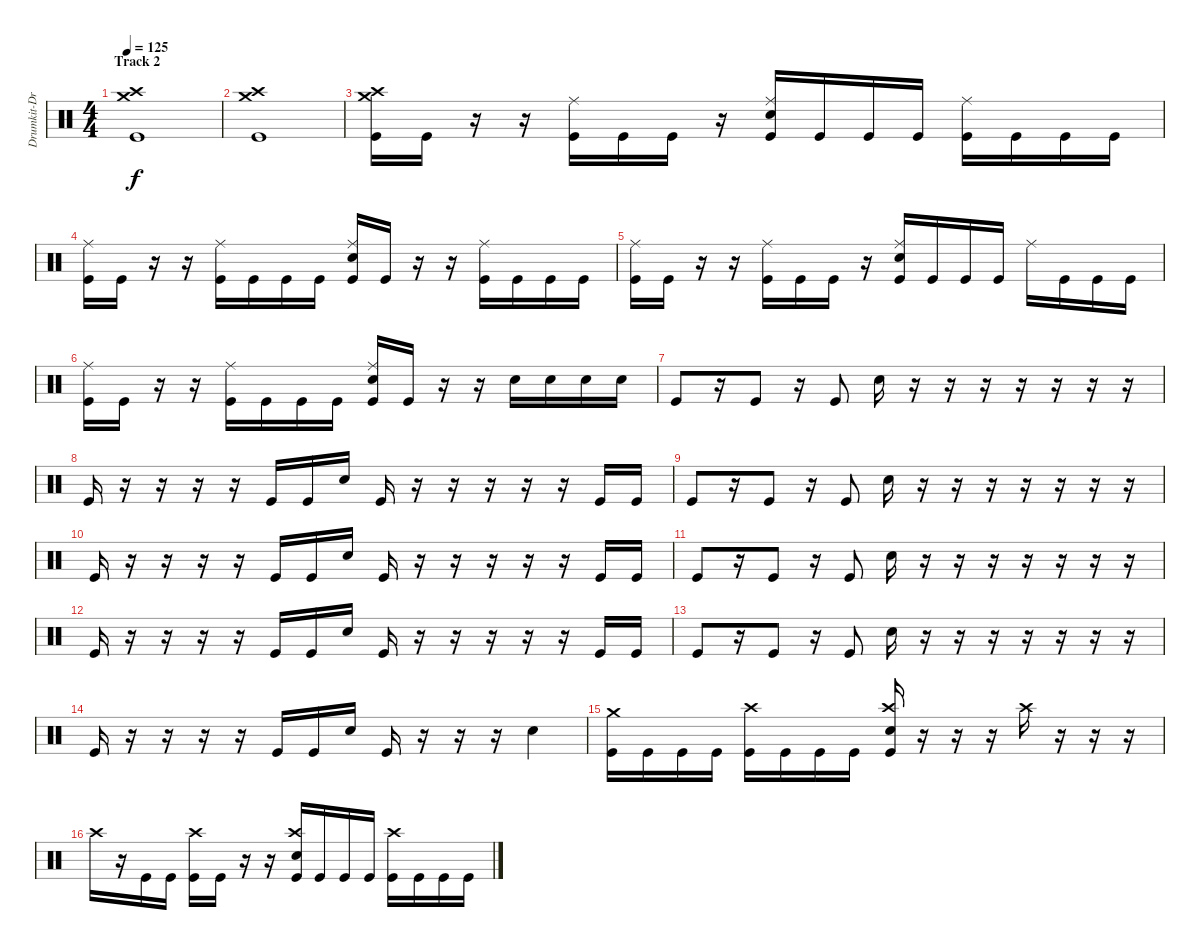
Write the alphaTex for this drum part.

\track ("Drumkit-Drums" "Drumkit-Dr") {instrument percussion}
\staff {score}
\articulation defaults
\ts (4 4)
\section ("" "Track 2")
\tempo 125
\clef neutral
\ks c
("Kick (hit)" "Crash high (hit)" "Crash medium (hit)").1{dy f} |
("Kick (hit)" "Crash high (hit)" "Crash medium (hit)").1 |
("Kick (hit)" "Crash high (hit)" "Crash medium (hit)").16 "Kick (hit)".16 r.16 r.16 ("Kick (hit)" "Ride (middle)").16 "Kick (hit)".16 "Kick (hit)".16 r.16 ("Kick (hit)" "Ride (middle)" "Snare (hit) 2").16 "Kick (hit)".16 "Kick (hit)".16 "Kick (hit)".16 ("Kick (hit)" "Ride (middle)").16 "Kick (hit)".16 "Kick (hit)".16 "Kick (hit)".16 |
("Kick (hit)" "Ride (middle)").16 "Kick (hit)".16 r.16 r.16 ("Kick (hit)" "Ride (middle)").16 "Kick (hit)".16 "Kick (hit)".16 "Kick (hit)".16 ("Kick (hit)" "Ride (middle)" "Snare (hit) 2").16 "Kick (hit)".16 r.16 r.16 ("Kick (hit)" "Ride (middle)").16 "Kick (hit)".16 "Kick (hit)".16 "Kick (hit)".16 |
("Kick (hit)" "Ride (middle)").16 "Kick (hit)".16 r.16 r.16 ("Kick (hit)" "Ride (middle)").16 "Kick (hit)".16 "Kick (hit)".16 r.16 ("Kick (hit)" "Ride (middle)" "Snare (hit) 2").16 "Kick (hit)".16 "Kick (hit)".16 "Kick (hit)".16 "Ride (middle)".16 "Kick (hit)".16 "Kick (hit)".16 "Kick (hit)".16 |
("Kick (hit)" "Ride (middle)").16 "Kick (hit)".16 r.16 r.16 ("Kick (hit)" "Ride (middle)").16 "Kick (hit)".16 "Kick (hit)".16 "Kick (hit)".16 ("Kick (hit)" "Ride (middle)" "Snare (hit) 2").16 "Kick (hit)".16 r.16 r.16 "Snare (hit) 2".16 "Snare (hit) 2".16 "Snare (hit) 2".16 "Snare (hit) 2".16 |
"Kick (hit)".8 r.16 "Kick (hit)".8 r.16 "Kick (hit)".8 "Snare (hit) 2".16 r.16 r.16 r.16 r.16 r.16 r.16 r.16 |
"Kick (hit)".16 r.16 r.16 r.16 r.16 "Kick (hit)".16 "Kick (hit)".16 "Snare (hit) 2".16 "Kick (hit)".16 r.16 r.16 r.16 r.16 r.16 "Kick (hit)".16 "Kick (hit)".16 |
"Kick (hit)".8 r.16 "Kick (hit)".8 r.16 "Kick (hit)".8 "Snare (hit) 2".16 r.16 r.16 r.16 r.16 r.16 r.16 r.16 |
"Kick (hit)".16 r.16 r.16 r.16 r.16 "Kick (hit)".16 "Kick (hit)".16 "Snare (hit) 2".16 "Kick (hit)".16 r.16 r.16 r.16 r.16 r.16 "Kick (hit)".16 "Kick (hit)".16 |
"Kick (hit)".8 r.16 "Kick (hit)".8 r.16 "Kick (hit)".8 "Snare (hit) 2".16 r.16 r.16 r.16 r.16 r.16 r.16 r.16 |
"Kick (hit)".16 r.16 r.16 r.16 r.16 "Kick (hit)".16 "Kick (hit)".16 "Snare (hit) 2".16 "Kick (hit)".16 r.16 r.16 r.16 r.16 r.16 "Kick (hit)".16 "Kick (hit)".16 |
"Kick (hit)".8 r.16 "Kick (hit)".8 r.16 "Kick (hit)".8 "Snare (hit) 2".16 r.16 r.16 r.16 r.16 r.16 r.16 r.16 |
"Kick (hit)".16 r.16 r.16 r.16 r.16 "Kick (hit)".16 "Kick (hit)".16 "Snare (hit) 2".16 "Kick (hit)".16 r.16 r.16 r.16 "Snare (hit) 2".4 |
("Kick (hit)" "Crash medium (hit)").16 "Kick (hit)".16 "Kick (hit)".16 "Kick (hit)".16 ("Kick (hit)" "Crash high (hit)").16 "Kick (hit)".16 "Kick (hit)".16 "Kick (hit)".16 ("Kick (hit)" "Crash high (hit)" "Snare (hit) 2").16 r.16 r.16 r.16 "Crash high (hit)".16 r.16 r.16 r.16 |
"Crash high (hit)".16 r.16 "Kick (hit)".16 "Kick (hit)".16 ("Kick (hit)" "Crash high (hit)").16 "Kick (hit)".16 r.16 r.16 ("Crash high (hit)" "Kick (hit)" "Snare (hit) 2").16 "Kick (hit)".16 "Kick (hit)".16 "Kick (hit)".16 ("Kick (hit)" "Crash high (hit)").16 "Kick (hit)".16 "Kick (hit)".16 "Kick (hit)".16
